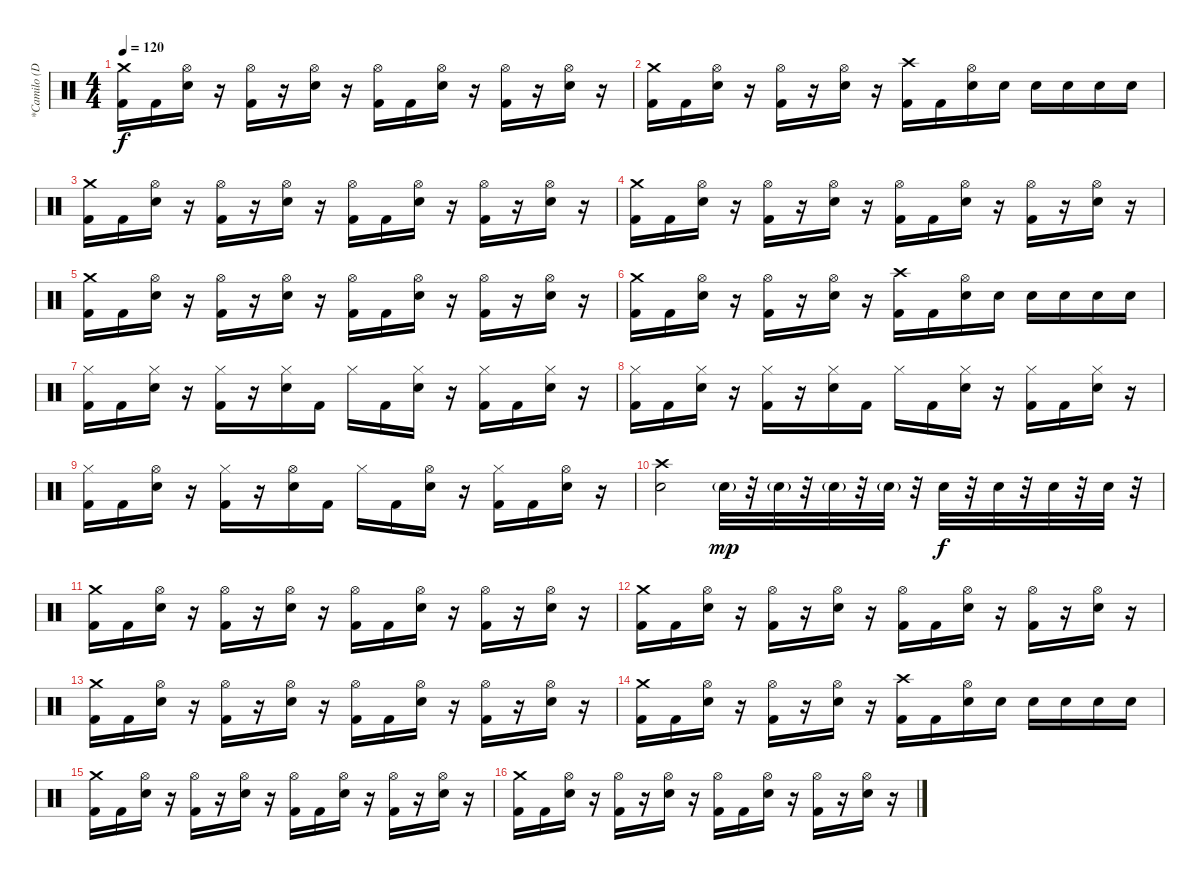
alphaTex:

\track ("*Camilo (Drums)" "*Camilo (D") {instrument percussion}
\staff {score}
\articulation defaults
\ts (4 4)
\tempo 120
\clef neutral
\ks c
("Crash medium (hit)" "Kick (hit) 2").16{dy f} "Kick (hit) 2".16 ("Hi-Hat (open)" "Electric Snare (hit)").16 r.16 ("Hi-Hat (open)" "Kick (hit) 2").16 r.16 ("Hi-Hat (open)" "Electric Snare (hit)").16 r.16 ("Hi-Hat (open)" "Kick (hit) 2").16 "Kick (hit) 2".16 ("Hi-Hat (open)" "Electric Snare (hit)").16 r.16 ("Hi-Hat (open)" "Kick (hit) 2").16 r.16 ("Hi-Hat (open)" "Electric Snare (hit)").16 r.16 |
("Crash medium (hit)" "Kick (hit) 2").16 "Kick (hit) 2".16 ("Hi-Hat (open)" "Electric Snare (hit)").16 r.16 ("Hi-Hat (open)" "Kick (hit) 2").16 r.16 ("Hi-Hat (open)" "Electric Snare (hit)").16 r.16 ("Crash high (hit)" "Kick (hit) 2").16 "Kick (hit) 2".16 ("Hi-Hat (open)" "Electric Snare (hit)").16 "Electric Snare (hit)".16 "Electric Snare (hit)".16 "Electric Snare (hit)".16 "Electric Snare (hit)".16 "Electric Snare (hit)".16 |
("Crash medium (hit)" "Kick (hit) 2").16 "Kick (hit) 2".16 ("Hi-Hat (open)" "Electric Snare (hit)").16 r.16 ("Hi-Hat (open)" "Kick (hit) 2").16 r.16 ("Hi-Hat (open)" "Electric Snare (hit)").16 r.16 ("Hi-Hat (open)" "Kick (hit) 2").16 "Kick (hit) 2".16 ("Hi-Hat (open)" "Electric Snare (hit)").16 r.16 ("Hi-Hat (open)" "Kick (hit) 2").16 r.16 ("Hi-Hat (open)" "Electric Snare (hit)").16 r.16 |
("Crash medium (hit)" "Kick (hit) 2").16 "Kick (hit) 2".16 ("Hi-Hat (open)" "Electric Snare (hit)").16 r.16 ("Hi-Hat (open)" "Kick (hit) 2").16 r.16 ("Hi-Hat (open)" "Electric Snare (hit)").16 r.16 ("Hi-Hat (open)" "Kick (hit) 2").16 "Kick (hit) 2".16 ("Hi-Hat (open)" "Electric Snare (hit)").16 r.16 ("Hi-Hat (open)" "Kick (hit) 2").16 r.16 ("Hi-Hat (open)" "Electric Snare (hit)").16 r.16 |
("Crash medium (hit)" "Kick (hit) 2").16 "Kick (hit) 2".16 ("Hi-Hat (open)" "Electric Snare (hit)").16 r.16 ("Hi-Hat (open)" "Kick (hit) 2").16 r.16 ("Hi-Hat (open)" "Electric Snare (hit)").16 r.16 ("Hi-Hat (open)" "Kick (hit) 2").16 "Kick (hit) 2".16 ("Hi-Hat (open)" "Electric Snare (hit)").16 r.16 ("Hi-Hat (open)" "Kick (hit) 2").16 r.16 ("Hi-Hat (open)" "Electric Snare (hit)").16 r.16 |
("Crash medium (hit)" "Kick (hit) 2").16 "Kick (hit) 2".16 ("Hi-Hat (open)" "Electric Snare (hit)").16 r.16 ("Hi-Hat (open)" "Kick (hit) 2").16 r.16 ("Hi-Hat (open)" "Electric Snare (hit)").16 r.16 ("Crash high (hit)" "Kick (hit) 2").16 "Kick (hit) 2".16 ("Hi-Hat (open)" "Electric Snare (hit)").16 "Electric Snare (hit)".16 "Electric Snare (hit)".16 "Electric Snare (hit)".16 "Electric Snare (hit)".16 "Electric Snare (hit)".16 |
("Hi-Hat (closed)" "Kick (hit) 2").16 "Kick (hit) 2".16 ("Hi-Hat (closed)" "Electric Snare (hit)").16 r.16 ("Hi-Hat (closed)" "Kick (hit) 2").16 r.16 ("Hi-Hat (closed)" "Electric Snare (hit)").16 "Kick (hit) 2".16 "Hi-Hat (closed)".16 "Kick (hit) 2".16 ("Hi-Hat (closed)" "Electric Snare (hit)").16 r.16 ("Hi-Hat (closed)" "Kick (hit) 2").16 "Kick (hit) 2".16 ("Hi-Hat (closed)" "Electric Snare (hit)").16 r.16 |
("Hi-Hat (closed)" "Kick (hit) 2").16 "Kick (hit) 2".16 ("Hi-Hat (closed)" "Electric Snare (hit)").16 r.16 ("Hi-Hat (closed)" "Kick (hit) 2").16 r.16 ("Hi-Hat (closed)" "Electric Snare (hit)").16 "Kick (hit) 2".16 "Hi-Hat (closed)".16 "Kick (hit) 2".16 ("Hi-Hat (closed)" "Electric Snare (hit)").16 r.16 ("Hi-Hat (closed)" "Kick (hit) 2").16 "Kick (hit) 2".16 ("Hi-Hat (closed)" "Electric Snare (hit)").16 r.16 |
("Hi-Hat (closed)" "Kick (hit) 2").16 "Kick (hit) 2".16 ("Hi-Hat (open)" "Electric Snare (hit)").16 r.16 ("Hi-Hat (closed)" "Kick (hit) 2").16 r.16 ("Hi-Hat (open)" "Electric Snare (hit)").16 "Kick (hit) 2".16 "Hi-Hat (closed)".16 "Kick (hit) 2".16 ("Hi-Hat (open)" "Electric Snare (hit)").16 r.16 ("Hi-Hat (closed)" "Kick (hit) 2").16 "Kick (hit) 2".16 ("Hi-Hat (open)" "Electric Snare (hit)").16 r.16 |
("Crash high (hit)" "Electric Snare (hit)").2 "Electric Snare (hit)"{g}.32{dy mp} r.32 "Electric Snare (hit)"{g}.32 r.32 "Electric Snare (hit)"{g}.32 r.32 "Electric Snare (hit)"{g}.32 r.32 "Electric Snare (hit)".32{dy f} r.32 "Electric Snare (hit)".32 r.32 "Electric Snare (hit)".32 r.32 "Electric Snare (hit)".32 r.32 |
("Crash medium (hit)" "Kick (hit) 2").16 "Kick (hit) 2".16 ("Hi-Hat (open)" "Electric Snare (hit)").16 r.16 ("Hi-Hat (open)" "Kick (hit) 2").16 r.16 ("Hi-Hat (open)" "Electric Snare (hit)").16 r.16 ("Hi-Hat (open)" "Kick (hit) 2").16 "Kick (hit) 2".16 ("Hi-Hat (open)" "Electric Snare (hit)").16 r.16 ("Hi-Hat (open)" "Kick (hit) 2").16 r.16 ("Hi-Hat (open)" "Electric Snare (hit)").16 r.16 |
("Crash medium (hit)" "Kick (hit) 2").16 "Kick (hit) 2".16 ("Hi-Hat (open)" "Electric Snare (hit)").16 r.16 ("Hi-Hat (open)" "Kick (hit) 2").16 r.16 ("Hi-Hat (open)" "Electric Snare (hit)").16 r.16 ("Hi-Hat (open)" "Kick (hit) 2").16 "Kick (hit) 2".16 ("Hi-Hat (open)" "Electric Snare (hit)").16 r.16 ("Hi-Hat (open)" "Kick (hit) 2").16 r.16 ("Hi-Hat (open)" "Electric Snare (hit)").16 r.16 |
("Crash medium (hit)" "Kick (hit) 2").16 "Kick (hit) 2".16 ("Hi-Hat (open)" "Electric Snare (hit)").16 r.16 ("Hi-Hat (open)" "Kick (hit) 2").16 r.16 ("Hi-Hat (open)" "Electric Snare (hit)").16 r.16 ("Hi-Hat (open)" "Kick (hit) 2").16 "Kick (hit) 2".16 ("Hi-Hat (open)" "Electric Snare (hit)").16 r.16 ("Hi-Hat (open)" "Kick (hit) 2").16 r.16 ("Hi-Hat (open)" "Electric Snare (hit)").16 r.16 |
("Crash medium (hit)" "Kick (hit) 2").16 "Kick (hit) 2".16 ("Hi-Hat (open)" "Electric Snare (hit)").16 r.16 ("Hi-Hat (open)" "Kick (hit) 2").16 r.16 ("Hi-Hat (open)" "Electric Snare (hit)").16 r.16 ("Crash high (hit)" "Kick (hit) 2").16 "Kick (hit) 2".16 ("Hi-Hat (open)" "Electric Snare (hit)").16 "Electric Snare (hit)".16 "Electric Snare (hit)".16 "Electric Snare (hit)".16 "Electric Snare (hit)".16 "Electric Snare (hit)".16 |
("Crash medium (hit)" "Kick (hit) 2").16 "Kick (hit) 2".16 ("Hi-Hat (open)" "Electric Snare (hit)").16 r.16 ("Hi-Hat (open)" "Kick (hit) 2").16 r.16 ("Hi-Hat (open)" "Electric Snare (hit)").16 r.16 ("Hi-Hat (open)" "Kick (hit) 2").16 "Kick (hit) 2".16 ("Hi-Hat (open)" "Electric Snare (hit)").16 r.16 ("Hi-Hat (open)" "Kick (hit) 2").16 r.16 ("Hi-Hat (open)" "Electric Snare (hit)").16 r.16 |
("Crash medium (hit)" "Kick (hit) 2").16 "Kick (hit) 2".16 ("Hi-Hat (open)" "Electric Snare (hit)").16 r.16 ("Hi-Hat (open)" "Kick (hit) 2").16 r.16 ("Hi-Hat (open)" "Electric Snare (hit)").16 r.16 ("Hi-Hat (open)" "Kick (hit) 2").16 "Kick (hit) 2".16 ("Hi-Hat (open)" "Electric Snare (hit)").16 r.16 ("Hi-Hat (open)" "Kick (hit) 2").16 r.16 ("Hi-Hat (open)" "Electric Snare (hit)").16 r.16
